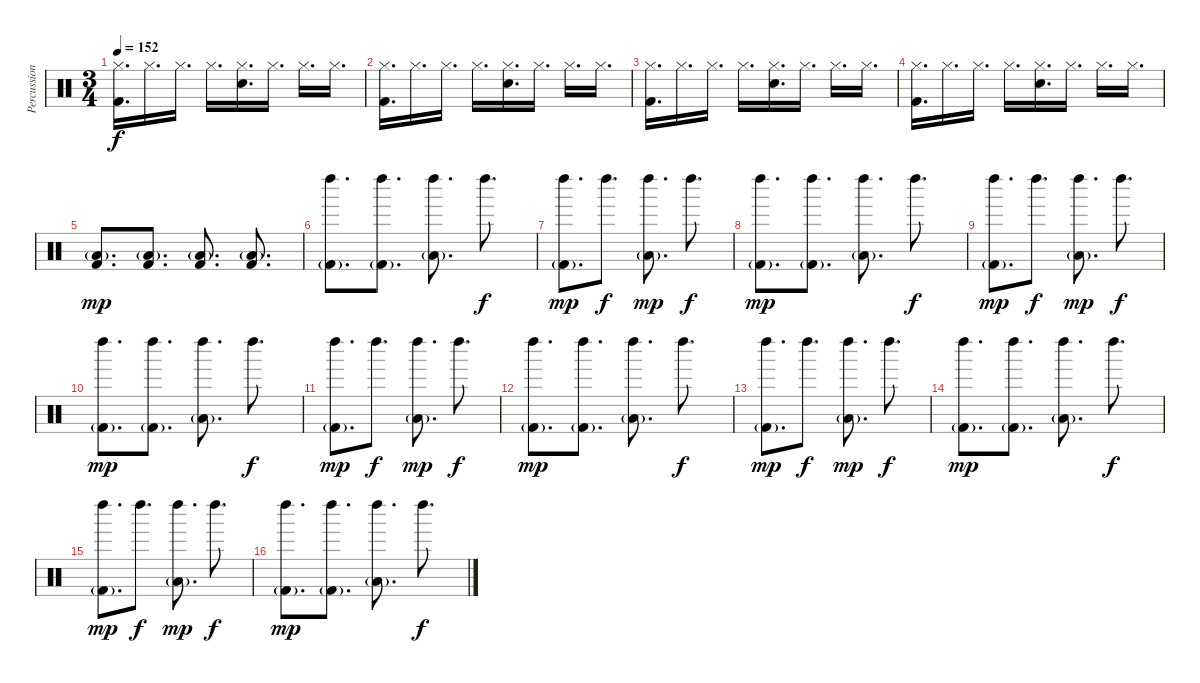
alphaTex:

\track ("Percussion" "Percussion") {instrument percussion}
\staff {score}
\articulation defaults
\ts (3 4)
\tempo 152
\clef neutral
\ks c
("Hi-Hat (closed)" "Kick (hit) 2").16{d dy f} "Hi-Hat (closed)".16{d} "Hi-Hat (closed)".16{d} "Hi-Hat (closed)".16{d} ("Hi-Hat (closed)" "Electric Snare (hit)").16{d} "Hi-Hat (closed)".16{d} "Hi-Hat (closed)".16{d} "Hi-Hat (closed)".16{d} |
("Hi-Hat (closed)" "Kick (hit) 2").16{d} "Hi-Hat (closed)".16{d} "Hi-Hat (closed)".16{d} "Hi-Hat (closed)".16{d} ("Hi-Hat (closed)" "Electric Snare (hit)").16{d} "Hi-Hat (closed)".16{d} "Hi-Hat (closed)".16{d} "Hi-Hat (closed)".16{d} |
("Hi-Hat (closed)" "Kick (hit) 2").16{d} "Hi-Hat (closed)".16{d} "Hi-Hat (closed)".16{d} "Hi-Hat (closed)".16{d} ("Hi-Hat (closed)" "Electric Snare (hit)").16{d} "Hi-Hat (closed)".16{d} "Hi-Hat (closed)".16{d} "Hi-Hat (closed)".16{d} |
("Hi-Hat (closed)" "Kick (hit) 2").16{d} "Hi-Hat (closed)".16{d} "Hi-Hat (closed)".16{d} "Hi-Hat (closed)".16{d} ("Hi-Hat (closed)" "Electric Snare (hit)").16{d} "Hi-Hat (closed)".16{d} "Hi-Hat (closed)".16{d} "Hi-Hat (closed)".16{d} |
("Kick (hit) 2" "Low Floor Tom (hit)"{g}).8{d dy mp} ("Kick (hit) 2" "Low Floor Tom (hit)"{g}).8{d} ("Kick (hit) 2" "Low Floor Tom (hit)"{g}).8{d} ("Kick (hit) 2" "Low Floor Tom (hit)"{g}).8{d} |
("Left Maraca (hit)" "Kick (hit) 2"{g}).8{d} ("Left Maraca (hit)" "Kick (hit) 2"{g}).8{d} ("Left Maraca (hit)" "Low Tom (hit)"{g}).8{d} "Left Maraca (hit)".8{d dy f} |
("Left Maraca (hit)" "Kick (hit) 2"{g}).8{d dy mp} "Left Maraca (hit)".8{d dy f} ("Left Maraca (hit)" "Low Tom (hit)"{g}).8{d dy mp} "Left Maraca (hit)".8{d dy f} |
("Left Maraca (hit)" "Kick (hit) 2"{g}).8{d dy mp} ("Left Maraca (hit)" "Kick (hit) 2"{g}).8{d} ("Left Maraca (hit)" "Low Tom (hit)"{g}).8{d} "Left Maraca (hit)".8{d dy f} |
("Left Maraca (hit)" "Kick (hit) 2"{g}).8{d dy mp} "Left Maraca (hit)".8{d dy f} ("Left Maraca (hit)" "Low Tom (hit)"{g}).8{d dy mp} "Left Maraca (hit)".8{d dy f} |
("Left Maraca (hit)" "Kick (hit) 2"{g}).8{d dy mp} ("Left Maraca (hit)" "Kick (hit) 2"{g}).8{d} ("Left Maraca (hit)" "Low Tom (hit)"{g}).8{d} "Left Maraca (hit)".8{d dy f} |
("Left Maraca (hit)" "Kick (hit) 2"{g}).8{d dy mp} "Left Maraca (hit)".8{d dy f} ("Left Maraca (hit)" "Low Tom (hit)"{g}).8{d dy mp} "Left Maraca (hit)".8{d dy f} |
("Left Maraca (hit)" "Kick (hit) 2"{g}).8{d dy mp} ("Left Maraca (hit)" "Kick (hit) 2"{g}).8{d} ("Left Maraca (hit)" "Low Tom (hit)"{g}).8{d} "Left Maraca (hit)".8{d dy f} |
("Left Maraca (hit)" "Kick (hit) 2"{g}).8{d dy mp} "Left Maraca (hit)".8{d dy f} ("Left Maraca (hit)" "Low Tom (hit)"{g}).8{d dy mp} "Left Maraca (hit)".8{d dy f} |
("Left Maraca (hit)" "Kick (hit) 2"{g}).8{d dy mp} ("Left Maraca (hit)" "Kick (hit) 2"{g}).8{d} ("Left Maraca (hit)" "Low Tom (hit)"{g}).8{d} "Left Maraca (hit)".8{d dy f} |
("Left Maraca (hit)" "Kick (hit) 2"{g}).8{d dy mp} "Left Maraca (hit)".8{d dy f} ("Left Maraca (hit)" "Low Tom (hit)"{g}).8{d dy mp} "Left Maraca (hit)".8{d dy f} |
("Left Maraca (hit)" "Kick (hit) 2"{g}).8{d dy mp} ("Left Maraca (hit)" "Kick (hit) 2"{g}).8{d} ("Left Maraca (hit)" "Low Tom (hit)"{g}).8{d} "Left Maraca (hit)".8{d dy f}
